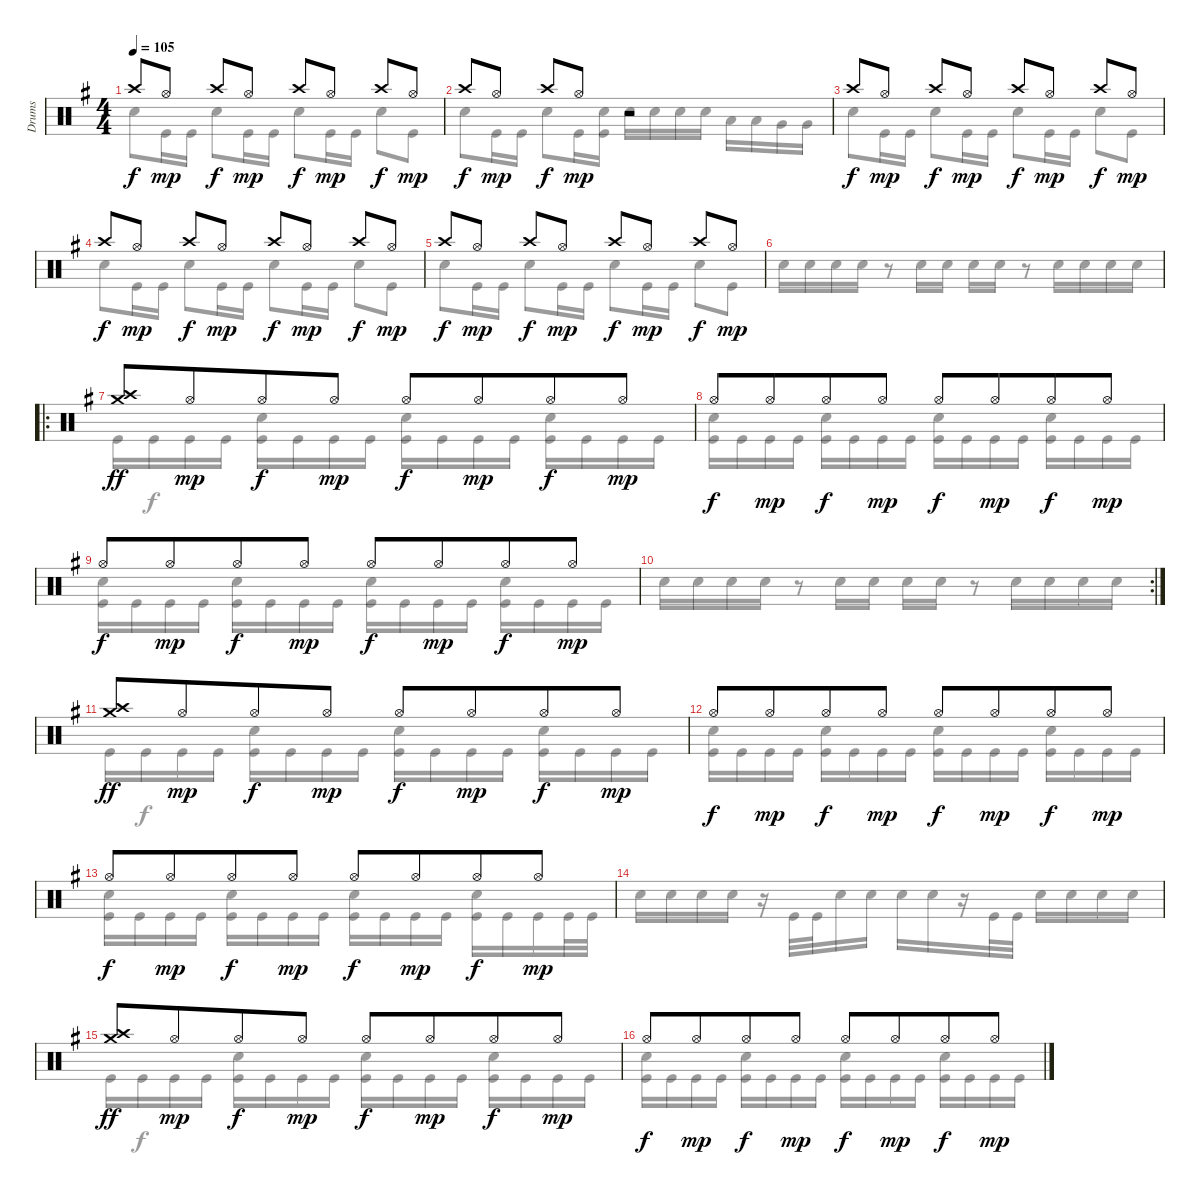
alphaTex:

\track ("Drums" "Drums") {instrument percussion}
\staff {score}
\articulation defaults
\voice
\ts (4 4)
\tempo 105
\clef neutral
\ks eminor "Crash high (hit)".8{dy f} "Hi-Hat (open)".8{dy mp} "Crash high (hit)".8{dy f} "Hi-Hat (open)".8{dy mp} "Crash high (hit)".8{dy f} "Hi-Hat (open)".8{dy mp} "Crash high (hit)".8{dy f} "Hi-Hat (open)".8{dy mp}
|
"Crash high (hit)".8{dy f} "Hi-Hat (open)".8{dy mp} "Crash high (hit)".8{dy f} "Hi-Hat (open)".8{dy mp} r.2 |
"Crash high (hit)".8{dy f} "Hi-Hat (open)".8{dy mp} "Crash high (hit)".8{dy f} "Hi-Hat (open)".8{dy mp} "Crash high (hit)".8{dy f} "Hi-Hat (open)".8{dy mp} "Crash high (hit)".8{dy f} "Hi-Hat (open)".8{dy mp} |
"Crash high (hit)".8{dy f} "Hi-Hat (open)".8{dy mp} "Crash high (hit)".8{dy f} "Hi-Hat (open)".8{dy mp} "Crash high (hit)".8{dy f} "Hi-Hat (open)".8{dy mp} "Crash high (hit)".8{dy f} "Hi-Hat (open)".8{dy mp} |
"Crash high (hit)".8{dy f} "Hi-Hat (open)".8{dy mp} "Crash high (hit)".8{dy f} "Hi-Hat (open)".8{dy mp} "Crash high (hit)".8{dy f} "Hi-Hat (open)".8{dy mp} "Crash high (hit)".8{dy f} "Hi-Hat (open)".8{dy mp} |
|
\ro
("Crash medium (hit)" "Crash high (hit)").8{dy ff} "Hi-Hat (open)".8{dy mp beam merge} "Hi-Hat (open)".8{dy f} "Hi-Hat (open)".8{dy mp} "Hi-Hat (open)".8{dy f} "Hi-Hat (open)".8{dy mp beam merge} "Hi-Hat (open)".8{dy f} "Hi-Hat (open)".8{dy mp} |
"Hi-Hat (open)".8{dy f} "Hi-Hat (open)".8{dy mp beam merge} "Hi-Hat (open)".8{dy f} "Hi-Hat (open)".8{dy mp} "Hi-Hat (open)".8{dy f} "Hi-Hat (open)".8{dy mp beam merge} "Hi-Hat (open)".8{dy f} "Hi-Hat (open)".8{dy mp} |
"Hi-Hat (open)".8{dy f} "Hi-Hat (open)".8{dy mp beam merge} "Hi-Hat (open)".8{dy f} "Hi-Hat (open)".8{dy mp} "Hi-Hat (open)".8{dy f} "Hi-Hat (open)".8{dy mp beam merge} "Hi-Hat (open)".8{dy f} "Hi-Hat (open)".8{dy mp} |
\rc 2
|
("Crash medium (hit)" "Crash high (hit)").8{dy ff} "Hi-Hat (open)".8{dy mp beam merge} "Hi-Hat (open)".8{dy f} "Hi-Hat (open)".8{dy mp} "Hi-Hat (open)".8{dy f} "Hi-Hat (open)".8{dy mp beam merge} "Hi-Hat (open)".8{dy f} "Hi-Hat (open)".8{dy mp} |
"Hi-Hat (open)".8{dy f} "Hi-Hat (open)".8{dy mp beam merge} "Hi-Hat (open)".8{dy f} "Hi-Hat (open)".8{dy mp} "Hi-Hat (open)".8{dy f} "Hi-Hat (open)".8{dy mp beam merge} "Hi-Hat (open)".8{dy f} "Hi-Hat (open)".8{dy mp} |
"Hi-Hat (open)".8{dy f} "Hi-Hat (open)".8{dy mp beam merge} "Hi-Hat (open)".8{dy f} "Hi-Hat (open)".8{dy mp} "Hi-Hat (open)".8{dy f} "Hi-Hat (open)".8{dy mp beam merge} "Hi-Hat (open)".8{dy f} "Hi-Hat (open)".8{dy mp} |
|
("Crash medium (hit)" "Crash high (hit)").8{dy ff} "Hi-Hat (open)".8{dy mp beam merge} "Hi-Hat (open)".8{dy f} "Hi-Hat (open)".8{dy mp} "Hi-Hat (open)".8{dy f} "Hi-Hat (open)".8{dy mp beam merge} "Hi-Hat (open)".8{dy f} "Hi-Hat (open)".8{dy mp} |
"Hi-Hat (open)".8{dy f} "Hi-Hat (open)".8{dy mp beam merge} "Hi-Hat (open)".8{dy f} "Hi-Hat (open)".8{dy mp} "Hi-Hat (open)".8{dy f} "Hi-Hat (open)".8{dy mp beam merge} "Hi-Hat (open)".8{dy f} "Hi-Hat (open)".8{dy mp}
\voice
\clef neutral
\ottava regular
\simile none
\ks eminor "Snare (hit) 2".8{dy f} "Kick (hit)".16 "Kick (hit)".16 "Snare (hit) 2".8 "Kick (hit)".16 "Kick (hit)".16 "Snare (hit) 2".8 "Kick (hit)".16 "Kick (hit)".16 "Snare (hit) 2".8 "Kick (hit)".8
|
"Snare (hit) 2".8 "Kick (hit)".16 "Kick (hit)".16 "Snare (hit) 2".8 "Kick (hit)".16 ("Snare (hit) 2" "Kick (hit)").16 "Snare (hit) 2".16 "Snare (hit) 2".16 "Snare (hit) 2".16 "Snare (hit) 2".16 "Low Tom (hit)".16 "Low Tom (hit)".16 "Very Low Tom (hit)".16 "Very Low Tom (hit)".16 |
"Snare (hit) 2".8 "Kick (hit)".16 "Kick (hit)".16 "Snare (hit) 2".8 "Kick (hit)".16 "Kick (hit)".16 "Snare (hit) 2".8 "Kick (hit)".16 "Kick (hit)".16 "Snare (hit) 2".8 "Kick (hit)".8 |
"Snare (hit) 2".8 "Kick (hit)".16 "Kick (hit)".16 "Snare (hit) 2".8 "Kick (hit)".16 "Kick (hit)".16 "Snare (hit) 2".8 "Kick (hit)".16 "Kick (hit)".16 "Snare (hit) 2".8 "Kick (hit)".8 |
"Snare (hit) 2".8 "Kick (hit)".16 "Kick (hit)".16 "Snare (hit) 2".8 "Kick (hit)".16 "Kick (hit)".16 "Snare (hit) 2".8 "Kick (hit)".16 "Kick (hit)".16 "Snare (hit) 2".8 "Kick (hit)".8 |
"Snare (hit) 2".16 "Snare (hit) 2".16 "Snare (hit) 2".16 "Snare (hit) 2".16 r.8 "Snare (hit) 2".16 "Snare (hit) 2".16 "Snare (hit) 2".16 "Snare (hit) 2".16 r.8 "Snare (hit) 2".16 "Snare (hit) 2".16 "Snare (hit) 2".16 "Snare (hit) 2".16 |
"Kick (hit)".16{dy ff} "Kick (hit)".16{dy f} "Kick (hit)".16 "Kick (hit)".16 ("Snare (hit) 2" "Kick (hit)").16 "Kick (hit)".16 "Kick (hit)".16 "Kick (hit)".16 ("Snare (hit) 2" "Kick (hit)").16 "Kick (hit)".16 "Kick (hit)".16 "Kick (hit)".16 ("Snare (hit) 2" "Kick (hit)").16 "Kick (hit)".16 "Kick (hit)".16 "Kick (hit)".16 |
("Snare (hit) 2" "Kick (hit)").16 "Kick (hit)".16 "Kick (hit)".16 "Kick (hit)".16 ("Snare (hit) 2" "Kick (hit)").16 "Kick (hit)".16 "Kick (hit)".16 "Kick (hit)".16 ("Snare (hit) 2" "Kick (hit)").16 "Kick (hit)".16 "Kick (hit)".16 "Kick (hit)".16 ("Snare (hit) 2" "Kick (hit)").16 "Kick (hit)".16 "Kick (hit)".16 "Kick (hit)".16 |
("Snare (hit) 2" "Kick (hit)").16 "Kick (hit)".16 "Kick (hit)".16 "Kick (hit)".16 ("Snare (hit) 2" "Kick (hit)").16 "Kick (hit)".16 "Kick (hit)".16 "Kick (hit)".16 ("Snare (hit) 2" "Kick (hit)").16 "Kick (hit)".16 "Kick (hit)".16 "Kick (hit)".16 ("Snare (hit) 2" "Kick (hit)").16 "Kick (hit)".16 "Kick (hit)".16 "Kick (hit)".16 |
"Snare (hit) 2".16 "Snare (hit) 2".16 "Snare (hit) 2".16 "Snare (hit) 2".16 r.8 "Snare (hit) 2".16 "Snare (hit) 2".16 "Snare (hit) 2".16 "Snare (hit) 2".16 r.8 "Snare (hit) 2".16 "Snare (hit) 2".16 "Snare (hit) 2".16 "Snare (hit) 2".16 |
"Kick (hit)".16{dy ff} "Kick (hit)".16{dy f} "Kick (hit)".16 "Kick (hit)".16 ("Snare (hit) 2" "Kick (hit)").16 "Kick (hit)".16 "Kick (hit)".16 "Kick (hit)".16 ("Snare (hit) 2" "Kick (hit)").16 "Kick (hit)".16 "Kick (hit)".16 "Kick (hit)".16 ("Snare (hit) 2" "Kick (hit)").16 "Kick (hit)".16 "Kick (hit)".16 "Kick (hit)".16 |
("Snare (hit) 2" "Kick (hit)").16 "Kick (hit)".16 "Kick (hit)".16 "Kick (hit)".16 ("Snare (hit) 2" "Kick (hit)").16 "Kick (hit)".16 "Kick (hit)".16 "Kick (hit)".16 ("Snare (hit) 2" "Kick (hit)").16 "Kick (hit)".16 "Kick (hit)".16 "Kick (hit)".16 ("Snare (hit) 2" "Kick (hit)").16 "Kick (hit)".16 "Kick (hit)".16 "Kick (hit)".16 |
("Snare (hit) 2" "Kick (hit)").16 "Kick (hit)".16 "Kick (hit)".16 "Kick (hit)".16 ("Snare (hit) 2" "Kick (hit)").16 "Kick (hit)".16 "Kick (hit)".16 "Kick (hit)".16 ("Snare (hit) 2" "Kick (hit)").16 "Kick (hit)".16 "Kick (hit)".16 "Kick (hit)".16 ("Snare (hit) 2" "Kick (hit)").16 "Kick (hit)".16 "Kick (hit)".16 "Kick (hit)".32 "Kick (hit)".32 |
"Snare (hit) 2".16 "Snare (hit) 2".16 "Snare (hit) 2".16 "Snare (hit) 2".16 r.16 "Kick (hit)".32 "Kick (hit)".32 "Snare (hit) 2".16 "Snare (hit) 2".16 "Snare (hit) 2".16 "Snare (hit) 2".16 r.16 "Kick (hit)".32 "Kick (hit)".32 "Snare (hit) 2".16 "Snare (hit) 2".16 "Snare (hit) 2".16 "Snare (hit) 2".16 |
"Kick (hit)".16{dy ff} "Kick (hit)".16{dy f} "Kick (hit)".16 "Kick (hit)".16 ("Snare (hit) 2" "Kick (hit)").16 "Kick (hit)".16 "Kick (hit)".16 "Kick (hit)".16 ("Snare (hit) 2" "Kick (hit)").16 "Kick (hit)".16 "Kick (hit)".16 "Kick (hit)".16 ("Snare (hit) 2" "Kick (hit)").16 "Kick (hit)".16 "Kick (hit)".16 "Kick (hit)".16 |
("Snare (hit) 2" "Kick (hit)").16 "Kick (hit)".16 "Kick (hit)".16 "Kick (hit)".16 ("Snare (hit) 2" "Kick (hit)").16 "Kick (hit)".16 "Kick (hit)".16 "Kick (hit)".16 ("Snare (hit) 2" "Kick (hit)").16 "Kick (hit)".16 "Kick (hit)".16 "Kick (hit)".16 ("Snare (hit) 2" "Kick (hit)").16 "Kick (hit)".16 "Kick (hit)".16 "Kick (hit)".16
